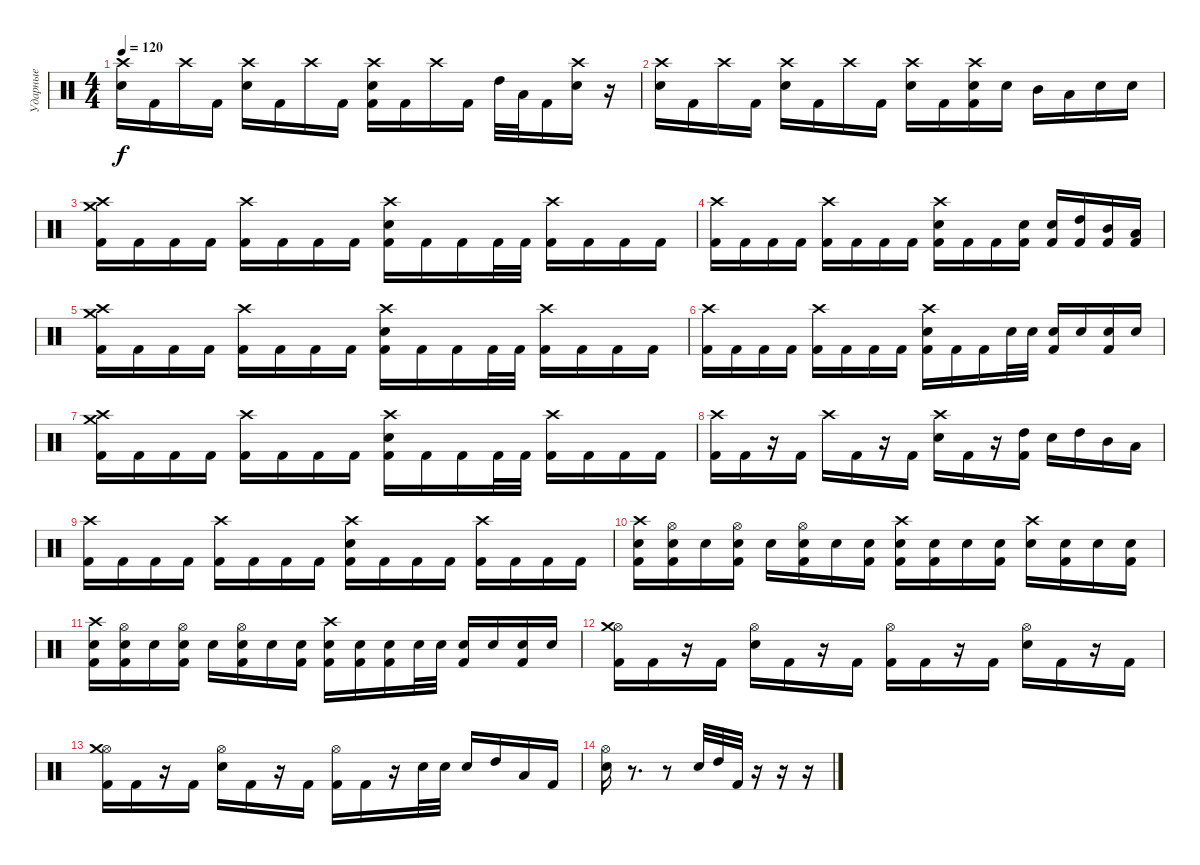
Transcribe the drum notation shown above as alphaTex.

\track ("Ударные" "Ударные") {instrument percussion}
\staff {score}
\articulation defaults
\ts (4 4)
\tempo 120
\clef neutral
\ks c
("Crash high (hit)" "Electric Snare (hit)").16{dy f} "Kick (hit) 2".16 "Crash high (hit)".16 "Kick (hit) 2".16 ("Crash high (hit)" "Electric Snare (hit)").16 "Kick (hit) 2".16 "Crash high (hit)".16 "Kick (hit) 2".16 ("Crash high (hit)" "Electric Snare (hit)" "Kick (hit) 2").16 "Kick (hit) 2".16 "Crash high (hit)".16 "Kick (hit) 2".16 "High Tom (hit)".32 "Low Tom (hit)".32 "Kick (hit) 2".16 ("Crash high (hit)" "Electric Snare (hit)").16 r.16 |
("Crash high (hit)" "Electric Snare (hit)").16 "Kick (hit) 2".16 "Crash high (hit)".16 "Kick (hit) 2".16 ("Crash high (hit)" "Electric Snare (hit)").16 "Kick (hit) 2".16 "Crash high (hit)".16 "Kick (hit) 2".16 ("Crash high (hit)" "Electric Snare (hit)").16 "Kick (hit) 2".16 ("Crash high (hit)" "Electric Snare (hit)" "Kick (hit) 2").16 "Electric Snare (hit)".16 "Mid Tom (hit)".16 "Low Tom (hit)".16 "Electric Snare (hit)".16 "Electric Snare (hit)".16 |
("Crash high (hit)" "Crash medium (hit)" "Kick (hit) 2").16 "Kick (hit) 2".16 "Kick (hit) 2".16 "Kick (hit) 2".16 ("Crash high (hit)" "Kick (hit) 2").16 "Kick (hit) 2".16 "Kick (hit) 2".16 "Kick (hit) 2".16 ("Crash high (hit)" "Electric Snare (hit)" "Kick (hit) 2").16 "Kick (hit) 2".16 "Kick (hit) 2".16 "Kick (hit) 2".32 "Kick (hit) 2".32 ("Crash high (hit)" "Kick (hit) 2").16 "Kick (hit) 2".16 "Kick (hit) 2".16 "Kick (hit) 2".16 |
("Crash high (hit)" "Kick (hit) 2").16 "Kick (hit) 2".16 "Kick (hit) 2".16 "Kick (hit) 2".16 ("Crash high (hit)" "Kick (hit) 2").16 "Kick (hit) 2".16 "Kick (hit) 2".16 "Kick (hit) 2".16 ("Crash high (hit)" "Electric Snare (hit)" "Kick (hit) 2").16 "Kick (hit) 2".16 "Kick (hit) 2".16 ("Electric Snare (hit)" "Kick (hit) 2").16 ("Electric Snare (hit)" "Kick (hit) 2").16 ("High Tom (hit)" "Kick (hit) 2").16 ("Mid Tom (hit)" "Kick (hit) 2").16 ("Low Tom (hit)" "Kick (hit) 2").16 |
("Crash high (hit)" "Crash medium (hit)" "Kick (hit) 2").16 "Kick (hit) 2".16 "Kick (hit) 2".16 "Kick (hit) 2".16 ("Crash high (hit)" "Kick (hit) 2").16 "Kick (hit) 2".16 "Kick (hit) 2".16 "Kick (hit) 2".16 ("Crash high (hit)" "Electric Snare (hit)" "Kick (hit) 2").16 "Kick (hit) 2".16 "Kick (hit) 2".16 "Kick (hit) 2".32 "Kick (hit) 2".32 ("Crash high (hit)" "Kick (hit) 2").16 "Kick (hit) 2".16 "Kick (hit) 2".16 "Kick (hit) 2".16 |
("Crash high (hit)" "Kick (hit) 2").16 "Kick (hit) 2".16 "Kick (hit) 2".16 "Kick (hit) 2".16 ("Crash high (hit)" "Kick (hit) 2").16 "Kick (hit) 2".16 "Kick (hit) 2".16 "Kick (hit) 2".16 ("Crash high (hit)" "Electric Snare (hit)" "Kick (hit) 2").16 "Kick (hit) 2".16 "Kick (hit) 2".16 "Electric Snare (hit)".32 "Electric Snare (hit)".32 ("Electric Snare (hit)" "Kick (hit) 2").16 "Electric Snare (hit)".16 ("Electric Snare (hit)" "Kick (hit) 2").16 "Electric Snare (hit)".16 |
("Crash high (hit)" "Crash medium (hit)" "Kick (hit) 2").16 "Kick (hit) 2".16 "Kick (hit) 2".16 "Kick (hit) 2".16 ("Crash high (hit)" "Kick (hit) 2").16 "Kick (hit) 2".16 "Kick (hit) 2".16 "Kick (hit) 2".16 ("Crash high (hit)" "Electric Snare (hit)" "Kick (hit) 2").16 "Kick (hit) 2".16 "Kick (hit) 2".16 "Kick (hit) 2".32 "Kick (hit) 2".32 ("Crash high (hit)" "Kick (hit) 2").16 "Kick (hit) 2".16 "Kick (hit) 2".16 "Kick (hit) 2".16 |
("Crash high (hit)" "Kick (hit) 2").16 "Kick (hit) 2".16 r.16 "Kick (hit) 2".16 "Crash high (hit)".16 "Kick (hit) 2".16 r.16 "Kick (hit) 2".16 ("Crash high (hit)" "Electric Snare (hit)").16 "Kick (hit) 2".16 r.16 ("High Tom (hit)" "Kick (hit) 2").16 "Electric Snare (hit)".16 "High Tom (hit)".16 "Mid Tom (hit)".16 "Low Tom (hit)".16 |
("Crash high (hit)" "Kick (hit) 2").16 "Kick (hit) 2".16 "Kick (hit) 2".16 "Kick (hit) 2".16 ("Crash high (hit)" "Kick (hit) 2").16 "Kick (hit) 2".16 "Kick (hit) 2".16 "Kick (hit) 2".16 ("Crash high (hit)" "Electric Snare (hit)" "Kick (hit) 2").16 "Kick (hit) 2".16 "Kick (hit) 2".16 "Kick (hit) 2".16 ("Crash high (hit)" "Kick (hit) 2").16 "Kick (hit) 2".16 "Kick (hit) 2".16 "Kick (hit) 2".16 |
("Crash high (hit)" "Electric Snare (hit)" "Kick (hit) 2").16 ("Hi-Hat (open)" "Electric Snare (hit)" "Kick (hit) 2").16 "Electric Snare (hit)".16 ("Hi-Hat (open)" "Electric Snare (hit)" "Kick (hit) 2").16 "Electric Snare (hit)".16 ("Hi-Hat (open)" "Electric Snare (hit)" "Kick (hit) 2").16 "Electric Snare (hit)".16 ("Electric Snare (hit)" "Kick (hit) 2").16 ("Crash high (hit)" "Electric Snare (hit)" "Kick (hit) 2").16 ("Electric Snare (hit)" "Kick (hit) 2").16 "Electric Snare (hit)".16 ("Electric Snare (hit)" "Kick (hit) 2").16 ("Crash high (hit)" "Electric Snare (hit)").16 ("Electric Snare (hit)" "Kick (hit) 2").16 "Electric Snare (hit)".16 ("Electric Snare (hit)" "Kick (hit) 2").16 |
("Crash high (hit)" "Electric Snare (hit)" "Kick (hit) 2").16 ("Hi-Hat (open)" "Electric Snare (hit)" "Kick (hit) 2").16 "Electric Snare (hit)".16 ("Hi-Hat (open)" "Electric Snare (hit)" "Kick (hit) 2").16 "Electric Snare (hit)".16 ("Hi-Hat (open)" "Electric Snare (hit)" "Kick (hit) 2").16 "Electric Snare (hit)".16 ("Electric Snare (hit)" "Kick (hit) 2").16 ("Crash high (hit)" "Electric Snare (hit)" "Kick (hit) 2").16 ("Electric Snare (hit)" "Kick (hit) 2").16 ("Electric Snare (hit)" "Kick (hit) 2").16 "Electric Snare (hit)".32 "Electric Snare (hit)".32 ("Electric Snare (hit)" "Kick (hit) 2").16 "Electric Snare (hit)".16 ("Electric Snare (hit)" "Kick (hit) 2").16 "Electric Snare (hit)".16 |
("Hi-Hat (open)" "Crash medium (hit)" "Kick (hit) 2").16 "Kick (hit) 2".16 r.16 "Kick (hit) 2".16 ("Hi-Hat (open)" "Electric Snare (hit)").16 "Kick (hit) 2".16 r.16 "Kick (hit) 2".16 ("Hi-Hat (open)" "Kick (hit) 2").16 "Kick (hit) 2".16 r.16 "Kick (hit) 2".16 ("Hi-Hat (open)" "Electric Snare (hit)").16 "Kick (hit) 2".16 r.16 "Kick (hit) 2".16 |
("Hi-Hat (open)" "Crash medium (hit)" "Kick (hit) 2").16 "Kick (hit) 2".16 r.16 "Kick (hit) 2".16 ("Hi-Hat (open)" "Electric Snare (hit)").16 "Kick (hit) 2".16 r.16 "Kick (hit) 2".16 ("Hi-Hat (open)" "Kick (hit) 2").16 "Kick (hit) 2".16 r.16 "Electric Snare (hit)".32 "Electric Snare (hit)".32 "Electric Snare (hit)".16 "High Tom (hit)".16 "Low Tom (hit)".16 "Kick (hit) 2".16 |
("Hi-Hat (open)" "Electric Snare (hit)").16 r.8{d} r.8 "Electric Snare (hit)".32 "High Tom (hit)".32 "Kick (hit) 2".32 r.16 r.16 r.16
